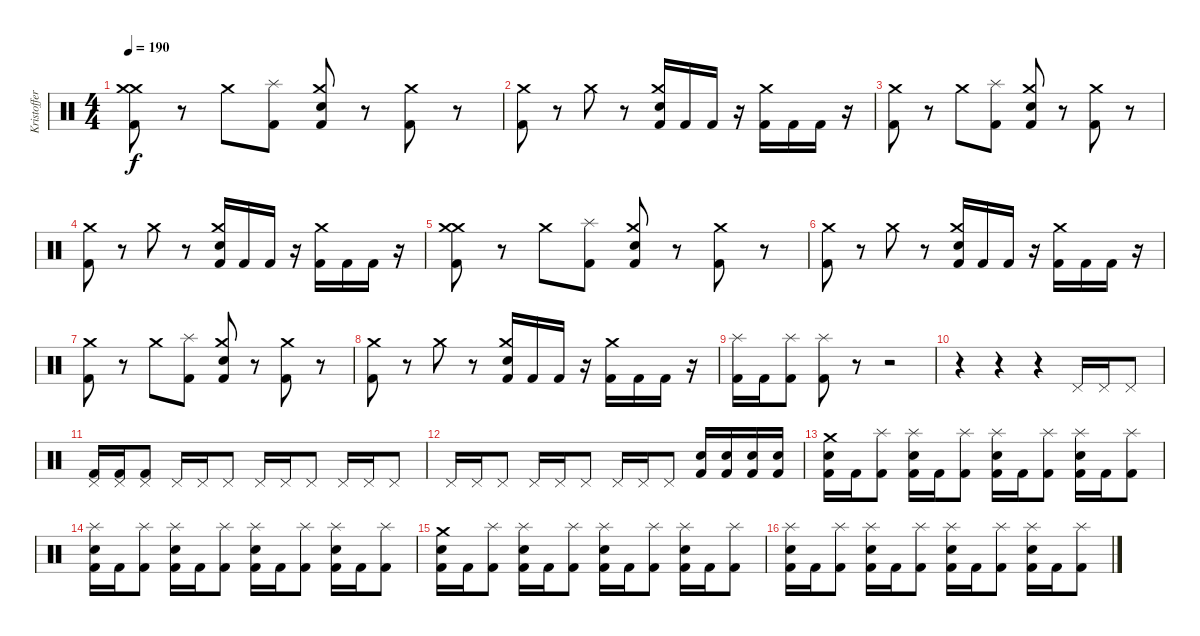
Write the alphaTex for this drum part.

\track ("Kristoffer (Drums)" "Kristoffer") {instrument percussion}
\staff {score}
\articulation defaults
\ts (4 4)
\tempo 190
\clef neutral
\ks c
("Kick (hit) 2" "Crash medium (hit)" "Crash medium (hit)").8{dy f} r.8 "Crash medium (hit)".8 ("Kick (hit) 2" "Splash (hit)").8 ("Kick (hit) 2" "Electric Snare (hit)" "Crash medium (hit)").8 r.8 ("Kick (hit) 2" "Crash medium (hit)").8 r.8 |
("Kick (hit) 2" "Crash medium (hit)").8 r.8 "Crash medium (hit)".8 r.8 ("Kick (hit) 2" "Electric Snare (hit)" "Crash medium (hit)").16 "Kick (hit) 2".16 "Kick (hit) 2".16 r.16 ("Kick (hit) 2" "Crash medium (hit)").16 "Kick (hit) 2".16 "Kick (hit) 2".16 r.16 |
("Kick (hit) 2" "Crash medium (hit)").8 r.8 "Crash medium (hit)".8 ("Kick (hit) 2" "Splash (hit)").8 ("Kick (hit) 2" "Electric Snare (hit)" "Crash medium (hit)").8 r.8 ("Kick (hit) 2" "Crash medium (hit)").8 r.8 |
("Kick (hit) 2" "Crash medium (hit)").8 r.8 "Crash medium (hit)".8 r.8 ("Kick (hit) 2" "Electric Snare (hit)" "Crash medium (hit)").16 "Kick (hit) 2".16 "Kick (hit) 2".16 r.16 ("Kick (hit) 2" "Crash medium (hit)").16 "Kick (hit) 2".16 "Kick (hit) 2".16 r.16 |
("Kick (hit) 2" "Crash medium (hit)" "Crash medium (hit)").8 r.8 "Crash medium (hit)".8 ("Kick (hit) 2" "Splash (hit)").8 ("Kick (hit) 2" "Electric Snare (hit)" "Crash medium (hit)").8 r.8 ("Kick (hit) 2" "Crash medium (hit)").8 r.8 |
("Kick (hit) 2" "Crash medium (hit)").8 r.8 "Crash medium (hit)".8 r.8 ("Kick (hit) 2" "Electric Snare (hit)" "Crash medium (hit)").16 "Kick (hit) 2".16 "Kick (hit) 2".16 r.16 ("Kick (hit) 2" "Crash medium (hit)").16 "Kick (hit) 2".16 "Kick (hit) 2".16 r.16 |
("Kick (hit) 2" "Crash medium (hit)").8 r.8 "Crash medium (hit)".8 ("Kick (hit) 2" "Splash (hit)").8 ("Kick (hit) 2" "Electric Snare (hit)" "Crash medium (hit)").8 r.8 ("Kick (hit) 2" "Crash medium (hit)").8 r.8 |
("Kick (hit) 2" "Crash medium (hit)").8 r.8 "Crash medium (hit)".8 r.8 ("Kick (hit) 2" "Electric Snare (hit)" "Crash medium (hit)").16 "Kick (hit) 2".16 "Kick (hit) 2".16 r.16 ("Kick (hit) 2" "Crash medium (hit)").16 "Kick (hit) 2".16 "Kick (hit) 2".16 r.16 |
("Kick (hit) 2" "Splash (hit)").16 "Kick (hit) 2".16 ("Kick (hit) 2" "Splash (hit)").8 ("Kick (hit) 2" "Splash (hit)").8 r.8 r.2 |
r.4 r.4 r.4 "Pedal Hi-Hat (hit)".16 "Pedal Hi-Hat (hit)".16 "Pedal Hi-Hat (hit)".8 |
("Pedal Hi-Hat (hit)" "Kick (hit) 2").16 ("Pedal Hi-Hat (hit)" "Kick (hit) 2").16 ("Pedal Hi-Hat (hit)" "Kick (hit) 2").8 "Pedal Hi-Hat (hit)".16 "Pedal Hi-Hat (hit)".16 "Pedal Hi-Hat (hit)".8 "Pedal Hi-Hat (hit)".16 "Pedal Hi-Hat (hit)".16 "Pedal Hi-Hat (hit)".8 "Pedal Hi-Hat (hit)".16 "Pedal Hi-Hat (hit)".16 "Pedal Hi-Hat (hit)".8 |
"Pedal Hi-Hat (hit)".16 "Pedal Hi-Hat (hit)".16 "Pedal Hi-Hat (hit)".8 "Pedal Hi-Hat (hit)".16 "Pedal Hi-Hat (hit)".16 "Pedal Hi-Hat (hit)".8 "Pedal Hi-Hat (hit)".16 "Pedal Hi-Hat (hit)".16 "Pedal Hi-Hat (hit)".8 ("Kick (hit) 2" "Electric Snare (hit)").16 ("Kick (hit) 2" "Electric Snare (hit)").16 ("Kick (hit) 2" "Electric Snare (hit)").16 ("Kick (hit) 2" "Electric Snare (hit)").16 |
("Kick (hit) 2" "Electric Snare (hit)" "Crash medium (hit)").16 "Kick (hit) 2".16 ("Kick (hit) 2" "Splash (hit)").8 ("Kick (hit) 2" "Electric Snare (hit)" "Splash (hit)").16 "Kick (hit) 2".16 ("Kick (hit) 2" "Splash (hit)").8 ("Kick (hit) 2" "Electric Snare (hit)" "Splash (hit)").16 "Kick (hit) 2".16 ("Kick (hit) 2" "Splash (hit)").8 ("Kick (hit) 2" "Electric Snare (hit)" "Splash (hit)").16 "Kick (hit) 2".16 ("Kick (hit) 2" "Splash (hit)").8 |
("Kick (hit) 2" "Electric Snare (hit)" "Splash (hit)").16 "Kick (hit) 2".16 ("Kick (hit) 2" "Splash (hit)").8 ("Kick (hit) 2" "Electric Snare (hit)" "Splash (hit)").16 "Kick (hit) 2".16 ("Kick (hit) 2" "Splash (hit)").8 ("Kick (hit) 2" "Electric Snare (hit)" "Splash (hit)").16 "Kick (hit) 2".16 ("Kick (hit) 2" "Splash (hit)").8 ("Kick (hit) 2" "Electric Snare (hit)" "Splash (hit)").16 "Kick (hit) 2".16 ("Kick (hit) 2" "Splash (hit)").8 |
("Kick (hit) 2" "Electric Snare (hit)" "Crash medium (hit)").16 "Kick (hit) 2".16 ("Kick (hit) 2" "Splash (hit)").8 ("Kick (hit) 2" "Electric Snare (hit)" "Splash (hit)").16 "Kick (hit) 2".16 ("Kick (hit) 2" "Splash (hit)").8 ("Kick (hit) 2" "Electric Snare (hit)" "Splash (hit)").16 "Kick (hit) 2".16 ("Kick (hit) 2" "Splash (hit)").8 ("Kick (hit) 2" "Electric Snare (hit)" "Splash (hit)").16 "Kick (hit) 2".16 ("Kick (hit) 2" "Splash (hit)").8 |
("Kick (hit) 2" "Electric Snare (hit)" "Splash (hit)").16 "Kick (hit) 2".16 ("Kick (hit) 2" "Splash (hit)").8 ("Kick (hit) 2" "Electric Snare (hit)" "Splash (hit)").16 "Kick (hit) 2".16 ("Kick (hit) 2" "Splash (hit)").8 ("Kick (hit) 2" "Electric Snare (hit)" "Splash (hit)").16 "Kick (hit) 2".16 ("Kick (hit) 2" "Splash (hit)").8 ("Kick (hit) 2" "Electric Snare (hit)" "Splash (hit)").16 "Kick (hit) 2".16 ("Kick (hit) 2" "Splash (hit)").8
